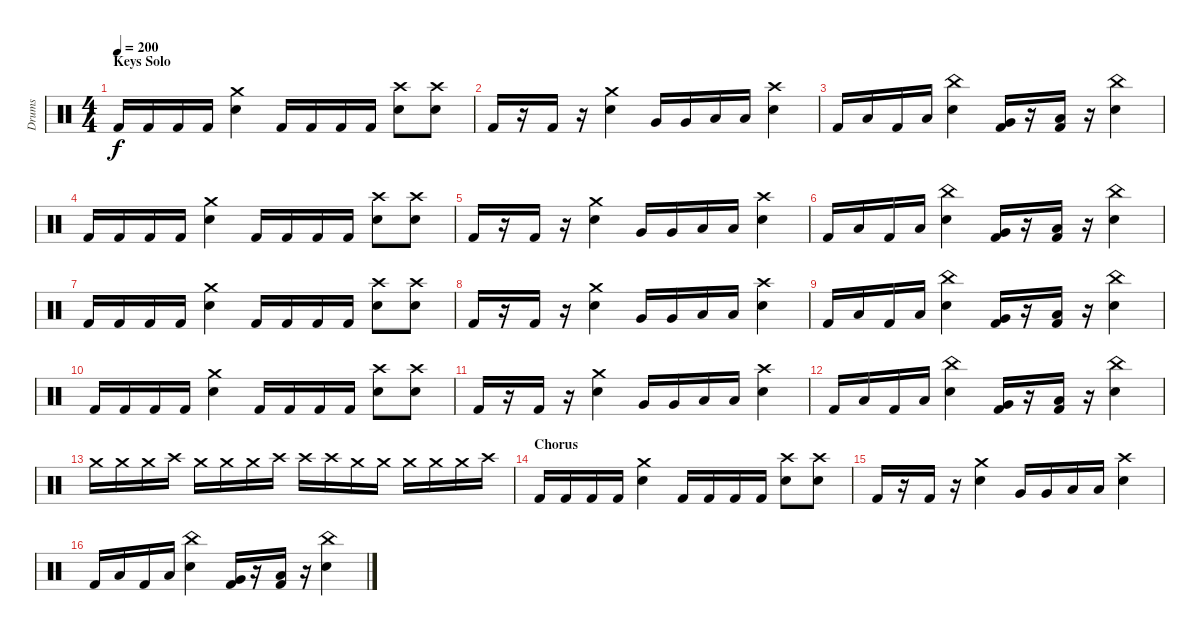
\track ("Drums" "Drums") {instrument percussion}
\staff {score}
\articulation defaults
\ts (4 4)
\section ("" "Keys Solo")
\tempo 200
\clef neutral
\ks c "Kick (hit) 2".16{dy f} "Kick (hit) 2".16 "Kick (hit) 2".16 "Kick (hit) 2".16
("Crash medium (hit)" "Electric Snare (hit)").4 "Kick (hit) 2".16 "Kick (hit) 2".16 "Kick (hit) 2".16 "Kick (hit) 2".16 ("Crash high (hit)" "Electric Snare (hit)").8 ("Crash high (hit)" "Electric Snare (hit)").8 |
"Kick (hit) 2".16 r.16 "Kick (hit) 2".16 r.16 ("Crash medium (hit)" "Electric Snare (hit)").4 "Very Low Tom (hit)".16 "Very Low Tom (hit)".16 "Low Floor Tom (hit)".16 "Low Floor Tom (hit)".16 ("Crash high (hit)" "Electric Snare (hit)").4 |
"Kick (hit) 2".16 "Low Floor Tom (hit)".16 "Kick (hit) 2".16 "Low Floor Tom (hit)".16 ("China (hit)" "Electric Snare (hit)").4 ("Very Low Tom (hit)" "Kick (hit) 2").16 r.16 ("Low Floor Tom (hit)" "Kick (hit) 2").16 r.16 ("China (hit)" "Electric Snare (hit)").4 |
"Kick (hit) 2".16 "Kick (hit) 2".16 "Kick (hit) 2".16 "Kick (hit) 2".16 ("Crash medium (hit)" "Electric Snare (hit)").4 "Kick (hit) 2".16 "Kick (hit) 2".16 "Kick (hit) 2".16 "Kick (hit) 2".16 ("Crash high (hit)" "Electric Snare (hit)").8 ("Crash high (hit)" "Electric Snare (hit)").8 |
"Kick (hit) 2".16 r.16 "Kick (hit) 2".16 r.16 ("Crash medium (hit)" "Electric Snare (hit)").4 "Very Low Tom (hit)".16 "Very Low Tom (hit)".16 "Low Floor Tom (hit)".16 "Low Floor Tom (hit)".16 ("Crash high (hit)" "Electric Snare (hit)").4 |
"Kick (hit) 2".16 "Low Floor Tom (hit)".16 "Kick (hit) 2".16 "Low Floor Tom (hit)".16 ("China (hit)" "Electric Snare (hit)").4 ("Very Low Tom (hit)" "Kick (hit) 2").16 r.16 ("Low Floor Tom (hit)" "Kick (hit) 2").16 r.16 ("China (hit)" "Electric Snare (hit)").4 |
"Kick (hit) 2".16 "Kick (hit) 2".16 "Kick (hit) 2".16 "Kick (hit) 2".16 ("Crash medium (hit)" "Electric Snare (hit)").4 "Kick (hit) 2".16 "Kick (hit) 2".16 "Kick (hit) 2".16 "Kick (hit) 2".16 ("Crash high (hit)" "Electric Snare (hit)").8 ("Crash high (hit)" "Electric Snare (hit)").8 |
"Kick (hit) 2".16 r.16 "Kick (hit) 2".16 r.16 ("Crash medium (hit)" "Electric Snare (hit)").4 "Very Low Tom (hit)".16 "Very Low Tom (hit)".16 "Low Floor Tom (hit)".16 "Low Floor Tom (hit)".16 ("Crash high (hit)" "Electric Snare (hit)").4 |
"Kick (hit) 2".16 "Low Floor Tom (hit)".16 "Kick (hit) 2".16 "Low Floor Tom (hit)".16 ("China (hit)" "Electric Snare (hit)").4 ("Very Low Tom (hit)" "Kick (hit) 2").16 r.16 ("Low Floor Tom (hit)" "Kick (hit) 2").16 r.16 ("China (hit)" "Electric Snare (hit)").4 |
"Kick (hit) 2".16 "Kick (hit) 2".16 "Kick (hit) 2".16 "Kick (hit) 2".16 ("Crash medium (hit)" "Electric Snare (hit)").4 "Kick (hit) 2".16 "Kick (hit) 2".16 "Kick (hit) 2".16 "Kick (hit) 2".16 ("Crash high (hit)" "Electric Snare (hit)").8 ("Crash high (hit)" "Electric Snare (hit)").8 |
"Kick (hit) 2".16 r.16 "Kick (hit) 2".16 r.16 ("Crash medium (hit)" "Electric Snare (hit)").4 "Very Low Tom (hit)".16 "Very Low Tom (hit)".16 "Low Floor Tom (hit)".16 "Low Floor Tom (hit)".16 ("Crash high (hit)" "Electric Snare (hit)").4 |
"Kick (hit) 2".16 "Low Floor Tom (hit)".16 "Kick (hit) 2".16 "Low Floor Tom (hit)".16 ("China (hit)" "Electric Snare (hit)").4 ("Very Low Tom (hit)" "Kick (hit) 2").16 r.16 ("Low Floor Tom (hit)" "Kick (hit) 2").16 r.16 ("China (hit)" "Electric Snare (hit)").4 |
"Crash medium (hit)".16 "Crash medium (hit)".16 "Crash medium (hit)".16 "Crash high (hit)".16 "Crash medium (hit)".16 "Crash medium (hit)".16 "Crash medium (hit)".16 "Crash high (hit)".16 "Crash high (hit)".16 "Crash high (hit)".16 "Crash medium (hit)".16 "Crash medium (hit)".16 "Crash medium (hit)".16 "Crash medium (hit)".16 "Crash medium (hit)".16 "Crash high (hit)".16 |
\section ("" "Chorus")
"Kick (hit) 2".16 "Kick (hit) 2".16 "Kick (hit) 2".16 "Kick (hit) 2".16 ("Crash medium (hit)" "Electric Snare (hit)").4 "Kick (hit) 2".16 "Kick (hit) 2".16 "Kick (hit) 2".16 "Kick (hit) 2".16 ("Crash high (hit)" "Electric Snare (hit)").8 ("Crash high (hit)" "Electric Snare (hit)").8 |
"Kick (hit) 2".16 r.16 "Kick (hit) 2".16 r.16 ("Crash medium (hit)" "Electric Snare (hit)").4 "Very Low Tom (hit)".16 "Very Low Tom (hit)".16 "Low Floor Tom (hit)".16 "Low Floor Tom (hit)".16 ("Crash high (hit)" "Electric Snare (hit)").4 |
"Kick (hit) 2".16 "Low Floor Tom (hit)".16 "Kick (hit) 2".16 "Low Floor Tom (hit)".16 ("China (hit)" "Electric Snare (hit)").4 ("Very Low Tom (hit)" "Kick (hit) 2").16 r.16 ("Low Floor Tom (hit)" "Kick (hit) 2").16 r.16 ("China (hit)" "Electric Snare (hit)").4
